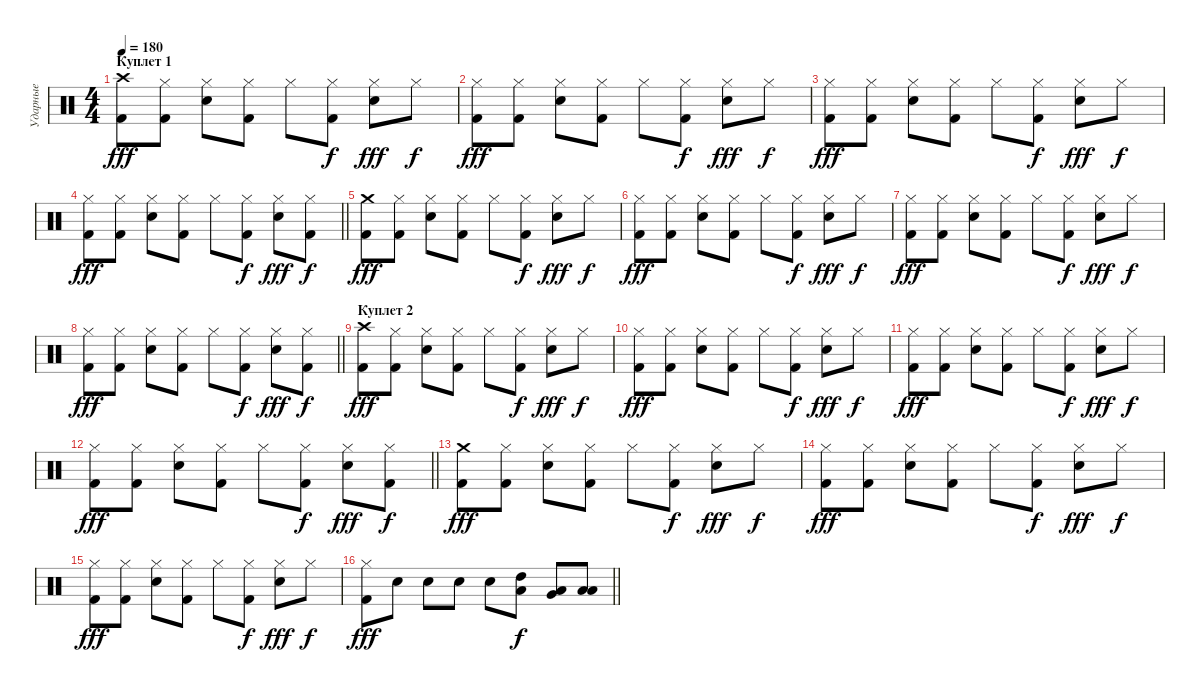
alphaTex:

\track ("Ударные" "Ударные") {instrument percussion}
\staff {score}
\articulation defaults
\ts (4 4)
\section ("" "Куплет 1")
\tempo 180
\clef neutral
\ks c
("Crash high (hit)" "Kick (hit) 2").8{dy fff} ("Hi-Hat (closed)" "Kick (hit) 2").8 ("Hi-Hat (closed)" "Snare (hit) 2").8 ("Hi-Hat (closed)" "Kick (hit) 2").8 "Hi-Hat (closed)".8 ("Hi-Hat (closed)" "Kick (hit) 2").8{dy f} ("Hi-Hat (closed)" "Snare (hit) 2").8{dy fff} "Hi-Hat (closed)".8{dy f} |
("Hi-Hat (closed)" "Kick (hit) 2").8{dy fff} ("Hi-Hat (closed)" "Kick (hit) 2").8 ("Hi-Hat (closed)" "Snare (hit) 2").8 ("Hi-Hat (closed)" "Kick (hit) 2").8 "Hi-Hat (closed)".8 ("Hi-Hat (closed)" "Kick (hit) 2").8{dy f} ("Hi-Hat (closed)" "Snare (hit) 2").8{dy fff} "Hi-Hat (closed)".8{dy f} |
("Hi-Hat (closed)" "Kick (hit) 2").8{dy fff} ("Hi-Hat (closed)" "Kick (hit) 2").8 ("Hi-Hat (closed)" "Snare (hit) 2").8 ("Hi-Hat (closed)" "Kick (hit) 2").8 "Hi-Hat (closed)".8 ("Hi-Hat (closed)" "Kick (hit) 2").8{dy f} ("Hi-Hat (closed)" "Snare (hit) 2").8{dy fff} "Hi-Hat (closed)".8{dy f} |
\barLineRight lightlight
("Hi-Hat (closed)" "Kick (hit) 2").8{dy fff} ("Hi-Hat (closed)" "Kick (hit) 2").8 ("Hi-Hat (closed)" "Snare (hit) 2").8 ("Hi-Hat (closed)" "Kick (hit) 2").8 "Hi-Hat (closed)".8 ("Hi-Hat (closed)" "Kick (hit) 2").8{dy f} ("Hi-Hat (closed)" "Snare (hit) 2").8{dy fff} ("Hi-Hat (closed)" "Kick (hit) 2").8{dy f} |
("Crash medium (hit)" "Kick (hit) 2").8{dy fff} ("Hi-Hat (closed)" "Kick (hit) 2").8 ("Hi-Hat (closed)" "Snare (hit) 2").8 ("Hi-Hat (closed)" "Kick (hit) 2").8 "Hi-Hat (closed)".8 ("Hi-Hat (closed)" "Kick (hit) 2").8{dy f} ("Hi-Hat (closed)" "Snare (hit) 2").8{dy fff} "Hi-Hat (closed)".8{dy f} |
("Hi-Hat (closed)" "Kick (hit) 2").8{dy fff} ("Hi-Hat (closed)" "Kick (hit) 2").8 ("Hi-Hat (closed)" "Snare (hit) 2").8 ("Hi-Hat (closed)" "Kick (hit) 2").8 "Hi-Hat (closed)".8 ("Hi-Hat (closed)" "Kick (hit) 2").8{dy f} ("Hi-Hat (closed)" "Snare (hit) 2").8{dy fff} "Hi-Hat (closed)".8{dy f} |
("Hi-Hat (closed)" "Kick (hit) 2").8{dy fff} ("Hi-Hat (closed)" "Kick (hit) 2").8 ("Hi-Hat (closed)" "Snare (hit) 2").8 ("Hi-Hat (closed)" "Kick (hit) 2").8 "Hi-Hat (closed)".8 ("Hi-Hat (closed)" "Kick (hit) 2").8{dy f} ("Hi-Hat (closed)" "Snare (hit) 2").8{dy fff} "Hi-Hat (closed)".8{dy f} |
\barLineRight lightlight
("Hi-Hat (closed)" "Kick (hit) 2").8{dy fff} ("Hi-Hat (closed)" "Kick (hit) 2").8 ("Hi-Hat (closed)" "Snare (hit) 2").8 ("Hi-Hat (closed)" "Kick (hit) 2").8 "Hi-Hat (closed)".8 ("Hi-Hat (closed)" "Kick (hit) 2").8{dy f} ("Hi-Hat (closed)" "Snare (hit) 2").8{dy fff} ("Hi-Hat (closed)" "Kick (hit) 2").8{dy f} |
\section ("" "Куплет 2")
("Crash high (hit)" "Kick (hit) 2").8{dy fff} ("Hi-Hat (closed)" "Kick (hit) 2").8 ("Hi-Hat (closed)" "Snare (hit) 2").8 ("Hi-Hat (closed)" "Kick (hit) 2").8 "Hi-Hat (closed)".8 ("Hi-Hat (closed)" "Kick (hit) 2").8{dy f} ("Hi-Hat (closed)" "Snare (hit) 2").8{dy fff} "Hi-Hat (closed)".8{dy f} |
("Hi-Hat (closed)" "Kick (hit) 2").8{dy fff} ("Hi-Hat (closed)" "Kick (hit) 2").8 ("Hi-Hat (closed)" "Snare (hit) 2").8 ("Hi-Hat (closed)" "Kick (hit) 2").8 "Hi-Hat (closed)".8 ("Hi-Hat (closed)" "Kick (hit) 2").8{dy f} ("Hi-Hat (closed)" "Snare (hit) 2").8{dy fff} "Hi-Hat (closed)".8{dy f} |
("Hi-Hat (closed)" "Kick (hit) 2").8{dy fff} ("Hi-Hat (closed)" "Kick (hit) 2").8 ("Hi-Hat (closed)" "Snare (hit) 2").8 ("Hi-Hat (closed)" "Kick (hit) 2").8 "Hi-Hat (closed)".8 ("Hi-Hat (closed)" "Kick (hit) 2").8{dy f} ("Hi-Hat (closed)" "Snare (hit) 2").8{dy fff} "Hi-Hat (closed)".8{dy f} |
\barLineRight lightlight
("Hi-Hat (closed)" "Kick (hit) 2").8{dy fff} ("Hi-Hat (closed)" "Kick (hit) 2").8 ("Hi-Hat (closed)" "Snare (hit) 2").8 ("Hi-Hat (closed)" "Kick (hit) 2").8 "Hi-Hat (closed)".8 ("Hi-Hat (closed)" "Kick (hit) 2").8{dy f} ("Hi-Hat (closed)" "Snare (hit) 2").8{dy fff} ("Hi-Hat (closed)" "Kick (hit) 2").8{dy f} |
("Crash medium (hit)" "Kick (hit) 2").8{dy fff} ("Hi-Hat (closed)" "Kick (hit) 2").8 ("Hi-Hat (closed)" "Snare (hit) 2").8 ("Hi-Hat (closed)" "Kick (hit) 2").8 "Hi-Hat (closed)".8 ("Hi-Hat (closed)" "Kick (hit) 2").8{dy f} ("Hi-Hat (closed)" "Snare (hit) 2").8{dy fff} "Hi-Hat (closed)".8{dy f} |
("Hi-Hat (closed)" "Kick (hit) 2").8{dy fff} ("Hi-Hat (closed)" "Kick (hit) 2").8 ("Hi-Hat (closed)" "Snare (hit) 2").8 ("Hi-Hat (closed)" "Kick (hit) 2").8 "Hi-Hat (closed)".8 ("Hi-Hat (closed)" "Kick (hit) 2").8{dy f} ("Hi-Hat (closed)" "Snare (hit) 2").8{dy fff} "Hi-Hat (closed)".8{dy f} |
("Hi-Hat (closed)" "Kick (hit) 2").8{dy fff} ("Hi-Hat (closed)" "Kick (hit) 2").8 ("Hi-Hat (closed)" "Snare (hit) 2").8 ("Hi-Hat (closed)" "Kick (hit) 2").8 "Hi-Hat (closed)".8 ("Hi-Hat (closed)" "Kick (hit) 2").8{dy f} ("Hi-Hat (closed)" "Snare (hit) 2").8{dy fff} "Hi-Hat (closed)".8{dy f} |
\barLineRight lightlight
("Hi-Hat (closed)" "Kick (hit) 2").8{dy fff} "Snare (hit) 2".8 "Snare (hit) 2".8 "Snare (hit) 2".8 "Snare (hit) 2".8 ("High Tom (hit)" "Low Tom (hit)").8{dy f} ("Low Tom (hit)" "Very Low Tom (hit)").8 ("Low Floor Tom (hit)" "Low Tom (hit)").8
